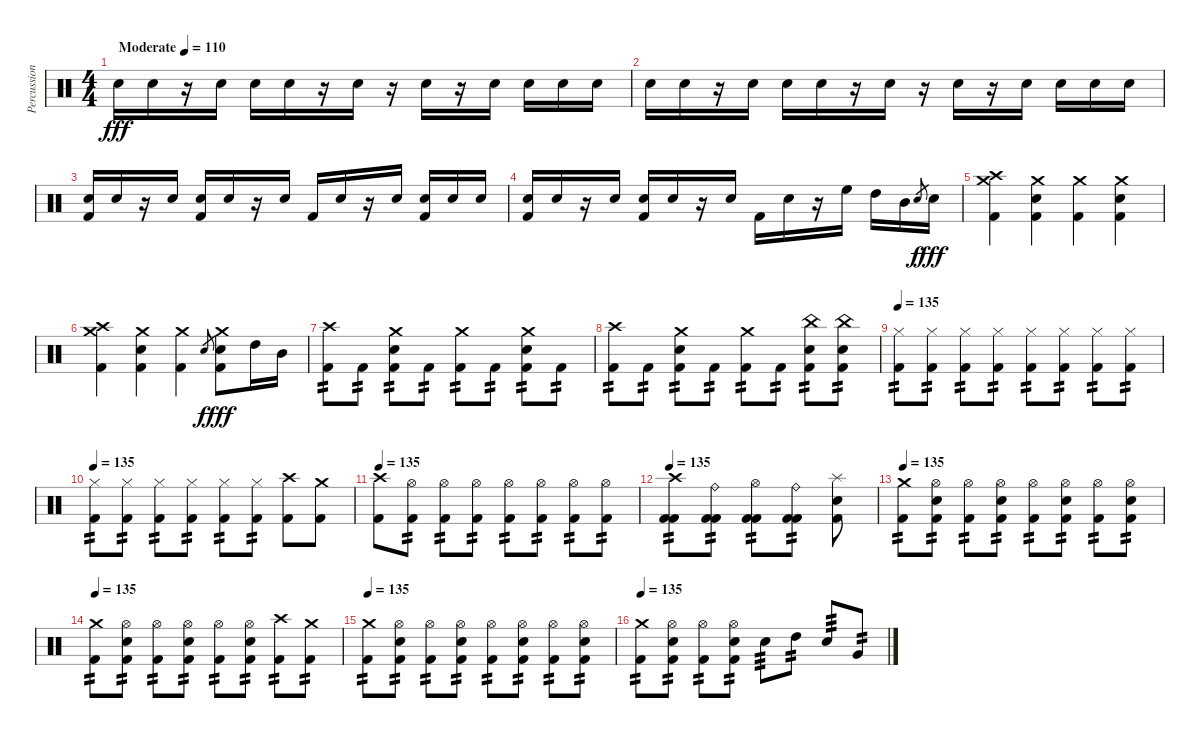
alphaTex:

\track ("Percussion" "Percussion") {solo instrument percussion}
\staff {score}
\articulation defaults
\ts (4 4)
\tempo (110 "Moderate")
\clef neutral
\ks c "Electric Snare (hit)".16{dy fff} "Electric Snare (hit)".16
r.16 "Electric Snare (hit)".16 "Electric Snare (hit)".16 "Electric Snare (hit)".16 r.16 "Electric Snare (hit)".16 r.16 "Electric Snare (hit)".16 r.16 "Electric Snare (hit)".16 "Electric Snare (hit)".16 "Electric Snare (hit)".16 "Electric Snare (hit)".16 |
"Electric Snare (hit)".16 "Electric Snare (hit)".16 r.16 "Electric Snare (hit)".16 "Electric Snare (hit)".16 "Electric Snare (hit)".16 r.16 "Electric Snare (hit)".16 r.16 "Electric Snare (hit)".16 r.16 "Electric Snare (hit)".16 "Electric Snare (hit)".16 "Electric Snare (hit)".16 "Electric Snare (hit)".16 |
("Electric Snare (hit)" "Kick (hit) 2").16 "Electric Snare (hit)".16 r.16 "Electric Snare (hit)".16 ("Electric Snare (hit)" "Kick (hit) 2").16 "Electric Snare (hit)".16 r.16 "Electric Snare (hit)".16 "Kick (hit) 2".16 "Electric Snare (hit)".16 r.16 "Electric Snare (hit)".16 ("Electric Snare (hit)" "Kick (hit) 2").16 "Electric Snare (hit)".16 "Electric Snare (hit)".16 |
("Electric Snare (hit)" "Kick (hit) 2").16 "Electric Snare (hit)".16 r.16 "Electric Snare (hit)".16 ("Electric Snare (hit)" "Kick (hit) 2").16 "Electric Snare (hit)".16 r.16 "Electric Snare (hit)".16 "Kick (hit) 2".16 "Electric Snare (hit)".16 r.16 "High Floor Tom (hit)".16 "High Tom (hit)".16 "Mid Tom (hit)".16 "Electric Snare (hit)".8{gr dy f} "Electric Snare (hit)".16{dy fff} |
("Crash medium (hit)" "Crash high (hit)" "Kick (hit) 2").4 ("Crash medium (hit)" "Electric Snare (hit)" "Kick (hit) 2").4 ("Crash medium (hit)" "Kick (hit) 2").4 ("Crash medium (hit)" "Electric Snare (hit)" "Kick (hit) 2").4 |
("Crash medium (hit)" "Crash high (hit)" "Kick (hit) 2").4 ("Crash medium (hit)" "Electric Snare (hit)" "Kick (hit) 2").4 ("Crash medium (hit)" "Kick (hit) 2").4 "Electric Snare (hit)".8{gr dy f} ("Crash medium (hit)" "Electric Snare (hit)" "Kick (hit) 2").8{dy fff} "High Tom (hit)".16 "Mid Tom (hit)".16 |
("Crash high (hit)" "Kick (hit) 2").8{tp 2} "Kick (hit) 2".8{tp 2} ("Crash medium (hit)" "Electric Snare (hit)" "Kick (hit) 2").8{tp 2} "Kick (hit) 2".8{tp 2} ("Crash medium (hit)" "Kick (hit) 2").8{tp 2} "Kick (hit) 2".8{tp 2} ("Crash medium (hit)" "Electric Snare (hit)" "Kick (hit) 2").8{tp 2} "Kick (hit) 2".8{tp 2} |
("Crash high (hit)" "Kick (hit) 2").8{tp 2} "Kick (hit) 2".8{tp 2} ("Crash medium (hit)" "Electric Snare (hit)" "Kick (hit) 2").8{tp 2} "Kick (hit) 2".8{tp 2} ("Crash medium (hit)" "Kick (hit) 2").8{tp 2} "Kick (hit) 2".8{tp 2} ("China (hit)" "Electric Snare (hit)" "Kick (hit) 2").8{tp 2} ("China (hit)" "Electric Snare (hit)" "Kick (hit) 2").8{tp 2} |
\tempo 135
("Kick (hit) 2" "Hi-Hat (closed)").8{tp 2} ("Kick (hit) 2" "Hi-Hat (closed)").8{tp 2} ("Kick (hit) 2" "Hi-Hat (closed)").8{tp 2} ("Kick (hit) 2" "Hi-Hat (closed)").8{tp 2} ("Kick (hit) 2" "Hi-Hat (closed)").8{tp 2} ("Kick (hit) 2" "Hi-Hat (closed)").8{tp 2} ("Kick (hit) 2" "Hi-Hat (closed)").8{tp 2} ("Kick (hit) 2" "Hi-Hat (closed)").8{tp 2} |
\tempo 135
("Kick (hit) 2" "Hi-Hat (closed)").8{tp 2} ("Kick (hit) 2" "Hi-Hat (closed)").8{tp 2} ("Kick (hit) 2" "Hi-Hat (closed)").8{tp 2} ("Kick (hit) 2" "Hi-Hat (closed)").8{tp 2} ("Kick (hit) 2" "Hi-Hat (closed)").8{tp 2} ("Kick (hit) 2" "Hi-Hat (closed)").8{tp 2} ("Kick (hit) 2" "Crash high (hit)").8 ("Kick (hit) 2" "Crash medium (hit)").8 |
\tempo 135
("Kick (hit) 2" "Crash high (hit)").8 ("Kick (hit) 2" "Hi-Hat (open)").8{tp 2} ("Kick (hit) 2" "Hi-Hat (open)").8{tp 2} ("Kick (hit) 2" "Hi-Hat (open)").8{tp 2} ("Kick (hit) 2" "Hi-Hat (open)").8{tp 2} ("Kick (hit) 2" "Hi-Hat (open)").8{tp 2} ("Kick (hit) 2" "Hi-Hat (open)").8{tp 2} ("Kick (hit) 2" "Hi-Hat (open)").8{tp 2} |
\tempo 135
("Kick (hit) 2" "Kick (hit) 2" "Crash high (hit)").8{tp 2} ("Kick (hit) 2" "Kick (hit) 2" "Ride (bell)").8{tp 2} ("Kick (hit) 2" "Kick (hit) 2" "Hi-Hat (open)").8{tp 2} ("Kick (hit) 2" "Kick (hit) 2" "Ride (bell)").8{tp 2} ("Splash (hit)" "Electric Snare (hit)" "Kick (hit) 2").8 |
\tempo 135
("Crash medium (hit)" "Kick (hit) 2").8{tp 2} ("Hi-Hat (open)" "Electric Snare (hit)" "Kick (hit) 2").8{tp 2} ("Hi-Hat (open)" "Kick (hit) 2").8{tp 2} ("Hi-Hat (open)" "Electric Snare (hit)" "Kick (hit) 2").8{tp 2} ("Hi-Hat (open)" "Kick (hit) 2").8{tp 2} ("Hi-Hat (open)" "Electric Snare (hit)" "Kick (hit) 2").8{tp 2} ("Hi-Hat (open)" "Kick (hit) 2").8{tp 2} ("Hi-Hat (open)" "Electric Snare (hit)" "Kick (hit) 2").8{tp 2} |
\tempo 135
("Crash medium (hit)" "Kick (hit) 2").8{tp 2} ("Hi-Hat (open)" "Electric Snare (hit)" "Kick (hit) 2").8{tp 2} ("Hi-Hat (open)" "Kick (hit) 2").8{tp 2} ("Hi-Hat (open)" "Electric Snare (hit)" "Kick (hit) 2").8{tp 2} ("Hi-Hat (open)" "Kick (hit) 2").8{tp 2} ("Hi-Hat (open)" "Electric Snare (hit)" "Kick (hit) 2").8{tp 2} ("Crash high (hit)" "Kick (hit) 2").8{tp 2} ("Crash medium (hit)" "Kick (hit) 2").8{tp 2} |
\tempo 135
("Crash medium (hit)" "Kick (hit) 2").8{tp 2} ("Hi-Hat (open)" "Electric Snare (hit)" "Kick (hit) 2").8{tp 2} ("Hi-Hat (open)" "Kick (hit) 2").8{tp 2} ("Hi-Hat (open)" "Electric Snare (hit)" "Kick (hit) 2").8{tp 2} ("Hi-Hat (open)" "Kick (hit) 2").8{tp 2} ("Hi-Hat (open)" "Electric Snare (hit)" "Kick (hit) 2").8{tp 2} ("Hi-Hat (open)" "Kick (hit) 2").8{tp 2} ("Hi-Hat (open)" "Electric Snare (hit)" "Kick (hit) 2").8{tp 2} |
\tempo 135
("Crash medium (hit)" "Kick (hit) 2").8{tp 2} ("Hi-Hat (open)" "Electric Snare (hit)" "Kick (hit) 2").8{tp 2} ("Hi-Hat (open)" "Kick (hit) 2").8{tp 2} ("Hi-Hat (open)" "Electric Snare (hit)" "Kick (hit) 2").8{tp 2} "Electric Snare (hit)".8{tp 3} "High Tom (hit)".8{tp 2} "Electric Snare (hit)".8{tp 3} "Very Low Tom (hit)".8{tp 2}
